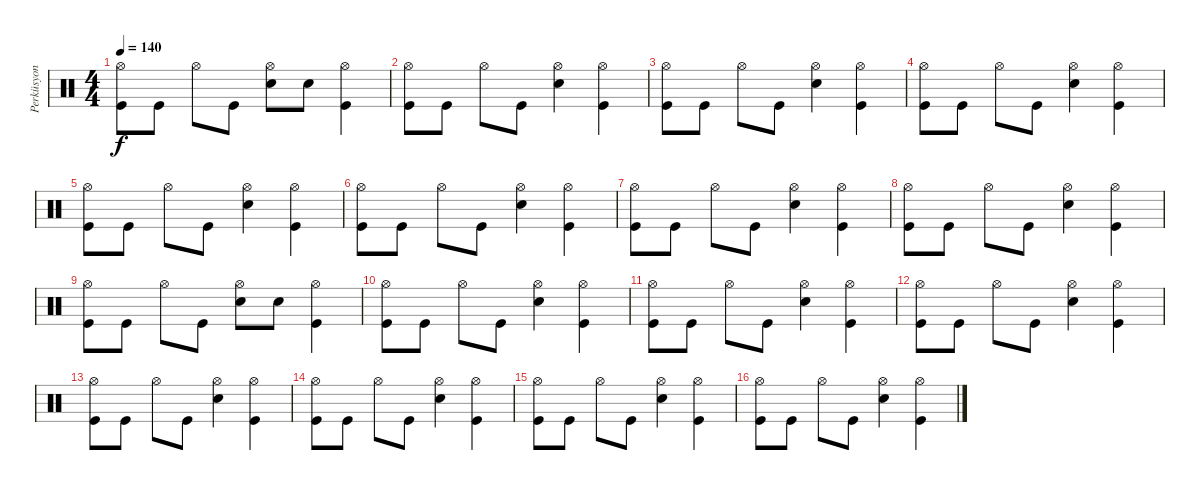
\track ("Perküsyon" "Perküsyon") {instrument percussion}
\staff {score}
\articulation defaults
\ts (4 4)
\tempo 140
\clef neutral
\ks c
("Hi-Hat (open)" "Kick (hit)").8{dy f} "Kick (hit)".8 "Hi-Hat (open)".8 "Kick (hit)".8 ("Hi-Hat (open)" "Snare (hit) 2").8 "Snare (hit) 2".8 ("Hi-Hat (open)" "Kick (hit)").4 |
("Hi-Hat (open)" "Kick (hit)").8 "Kick (hit)".8 "Hi-Hat (open)".8 "Kick (hit)".8 ("Hi-Hat (open)" "Snare (hit) 2").4 ("Hi-Hat (open)" "Kick (hit)").4 |
("Hi-Hat (open)" "Kick (hit)").8 "Kick (hit)".8 "Hi-Hat (open)".8 "Kick (hit)".8 ("Hi-Hat (open)" "Snare (hit) 2").4 ("Hi-Hat (open)" "Kick (hit)").4 |
("Hi-Hat (open)" "Kick (hit)").8 "Kick (hit)".8 "Hi-Hat (open)".8 "Kick (hit)".8 ("Hi-Hat (open)" "Snare (hit) 2").4 ("Hi-Hat (open)" "Kick (hit)").4 |
("Hi-Hat (open)" "Kick (hit)").8 "Kick (hit)".8 "Hi-Hat (open)".8 "Kick (hit)".8 ("Hi-Hat (open)" "Snare (hit) 2").4 ("Hi-Hat (open)" "Kick (hit)").4 |
("Hi-Hat (open)" "Kick (hit)").8 "Kick (hit)".8 "Hi-Hat (open)".8 "Kick (hit)".8 ("Hi-Hat (open)" "Snare (hit) 2").4 ("Hi-Hat (open)" "Kick (hit)").4 |
("Hi-Hat (open)" "Kick (hit)").8 "Kick (hit)".8 "Hi-Hat (open)".8 "Kick (hit)".8 ("Hi-Hat (open)" "Snare (hit) 2").4 ("Hi-Hat (open)" "Kick (hit)").4 |
("Hi-Hat (open)" "Kick (hit)").8 "Kick (hit)".8 "Hi-Hat (open)".8 "Kick (hit)".8 ("Hi-Hat (open)" "Snare (hit) 2").4 ("Hi-Hat (open)" "Kick (hit)").4 |
("Hi-Hat (open)" "Kick (hit)").8 "Kick (hit)".8 "Hi-Hat (open)".8 "Kick (hit)".8 ("Hi-Hat (open)" "Snare (hit) 2").8 "Snare (hit) 2".8 ("Hi-Hat (open)" "Kick (hit)").4 |
("Hi-Hat (open)" "Kick (hit)").8 "Kick (hit)".8 "Hi-Hat (open)".8 "Kick (hit)".8 ("Hi-Hat (open)" "Snare (hit) 2").4 ("Hi-Hat (open)" "Kick (hit)").4 |
("Hi-Hat (open)" "Kick (hit)").8 "Kick (hit)".8 "Hi-Hat (open)".8 "Kick (hit)".8 ("Hi-Hat (open)" "Snare (hit) 2").4 ("Hi-Hat (open)" "Kick (hit)").4 |
("Hi-Hat (open)" "Kick (hit)").8 "Kick (hit)".8 "Hi-Hat (open)".8 "Kick (hit)".8 ("Hi-Hat (open)" "Snare (hit) 2").4 ("Hi-Hat (open)" "Kick (hit)").4 |
("Hi-Hat (open)" "Kick (hit)").8 "Kick (hit)".8 "Hi-Hat (open)".8 "Kick (hit)".8 ("Hi-Hat (open)" "Snare (hit) 2").4 ("Hi-Hat (open)" "Kick (hit)").4 |
("Hi-Hat (open)" "Kick (hit)").8 "Kick (hit)".8 "Hi-Hat (open)".8 "Kick (hit)".8 ("Hi-Hat (open)" "Snare (hit) 2").4 ("Hi-Hat (open)" "Kick (hit)").4 |
("Hi-Hat (open)" "Kick (hit)").8 "Kick (hit)".8 "Hi-Hat (open)".8 "Kick (hit)".8 ("Hi-Hat (open)" "Snare (hit) 2").4 ("Hi-Hat (open)" "Kick (hit)").4 |
("Hi-Hat (open)" "Kick (hit)").8 "Kick (hit)".8 "Hi-Hat (open)".8 "Kick (hit)".8 ("Hi-Hat (open)" "Snare (hit) 2").4 ("Hi-Hat (open)" "Kick (hit)").4
